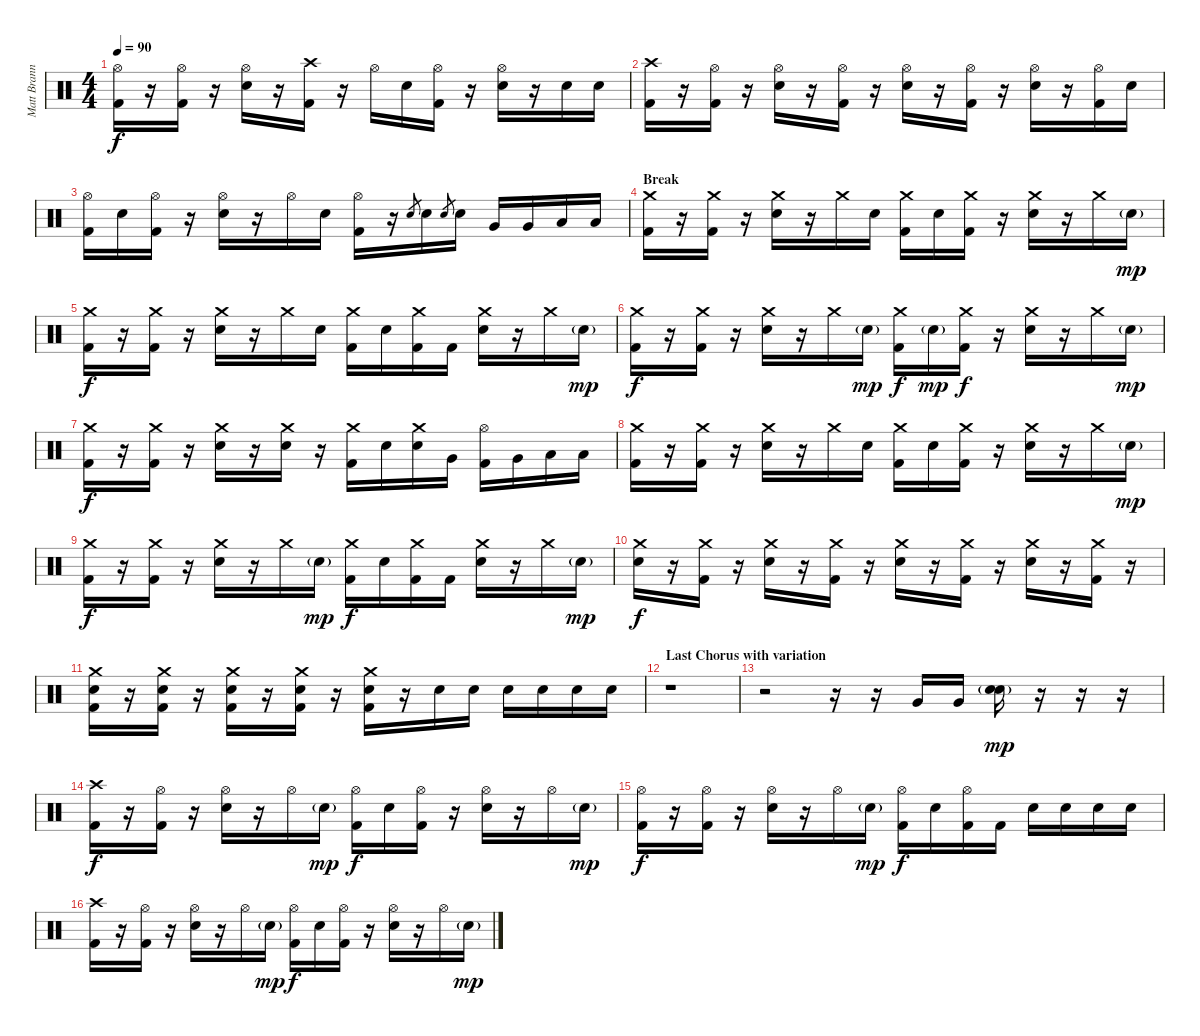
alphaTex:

\track ("Matt Brann - Drums" "Matt Brann") {instrument percussion}
\staff {score}
\articulation defaults
\ts (4 4)
\tempo 90
\clef neutral
\ks c
("Hi-Hat (open)" "Kick (hit) 2").16{dy f} r.16 ("Hi-Hat (open)" "Kick (hit) 2").16 r.16 ("Hi-Hat (open)" "Snare (hit) 2").16 r.16 ("Crash high (hit)" "Kick (hit) 2").16 r.16 "Hi-Hat (open)".16 "Snare (hit) 2".16 ("Hi-Hat (open)" "Kick (hit) 2").16 r.16 ("Hi-Hat (open)" "Snare (hit) 2").16 r.16 "Snare (hit) 2".16 "Snare (hit) 2".16 |
("Crash high (hit)" "Kick (hit) 2").16 r.16 ("Hi-Hat (open)" "Kick (hit) 2").16 r.16 ("Hi-Hat (open)" "Snare (hit) 2").16 r.16 ("Hi-Hat (open)" "Kick (hit) 2").16 r.16 ("Hi-Hat (open)" "Snare (hit) 2").16 r.16 ("Hi-Hat (open)" "Kick (hit) 2").16 r.16 ("Hi-Hat (open)" "Snare (hit) 2").16 r.16 ("Hi-Hat (open)" "Kick (hit) 2").16 "Snare (hit) 2".16 |
("Hi-Hat (open)" "Kick (hit) 2").16 "Snare (hit) 2".16 ("Hi-Hat (open)" "Kick (hit) 2").16 r.16 ("Hi-Hat (open)" "Snare (hit) 2").16 r.16 "Hi-Hat (open)".16 "Snare (hit) 2".16 ("Hi-Hat (open)" "Kick (hit) 2").16 r.16 "Snare (hit) 2".8{gr} "Snare (hit) 2".16 "Snare (hit) 2".8{gr} "Snare (hit) 2".16 "Very Low Tom (hit)".16 "Very Low Tom (hit)".16 "Low Floor Tom (hit)".16 "Low Floor Tom (hit)".16 |
\section ("" "Break")
("Crash medium (hit)" "Kick (hit) 2").16 r.16 ("Crash medium (hit)" "Kick (hit) 2").16 r.16 ("Crash medium (hit)" "Snare (hit) 2").16 r.16 "Crash medium (hit)".16 "Snare (hit) 2".16 ("Crash medium (hit)" "Kick (hit) 2").16 "Snare (hit) 2".16 ("Crash medium (hit)" "Kick (hit) 2").16 r.16 ("Crash medium (hit)" "Snare (hit) 2").16 r.16 "Crash medium (hit)".16 "Snare (hit) 2"{g}.16{dy mp} |
("Crash medium (hit)" "Kick (hit) 2").16{dy f} r.16 ("Crash medium (hit)" "Kick (hit) 2").16 r.16 ("Crash medium (hit)" "Snare (hit) 2").16 r.16 "Crash medium (hit)".16 "Snare (hit) 2".16 ("Crash medium (hit)" "Kick (hit) 2").16 "Snare (hit) 2".16 ("Crash medium (hit)" "Kick (hit) 2").16 "Kick (hit) 2".16 ("Crash medium (hit)" "Snare (hit) 2").16 r.16 "Crash medium (hit)".16 "Snare (hit) 2"{g}.16{dy mp} |
("Crash medium (hit)" "Kick (hit) 2").16{dy f} r.16 ("Crash medium (hit)" "Kick (hit) 2").16 r.16 ("Crash medium (hit)" "Snare (hit) 2").16 r.16 "Crash medium (hit)".16 "Snare (hit) 2"{g}.16{dy mp} ("Crash medium (hit)" "Kick (hit) 2").16{dy f} "Snare (hit) 2"{g}.16{dy mp} ("Crash medium (hit)" "Kick (hit) 2").16{dy f} r.16 ("Crash medium (hit)" "Snare (hit) 2").16 r.16 "Crash medium (hit)".16 "Snare (hit) 2"{g}.16{dy mp} |
("Crash medium (hit)" "Kick (hit) 2").16{dy f} r.16 ("Crash medium (hit)" "Kick (hit) 2").16 r.16 ("Crash medium (hit)" "Snare (hit) 2").16 r.16 ("Crash medium (hit)" "Snare (hit) 2").16 r.16 ("Crash medium (hit)" "Kick (hit) 2").16 "Snare (hit) 2".16 ("Crash medium (hit)" "Snare (hit) 2").16 "Very Low Tom (hit)".16 ("Hi-Hat (open)" "Kick (hit) 2").16 "Very Low Tom (hit)".16 "Low Floor Tom (hit)".16 "Low Floor Tom (hit)".16 |
("Crash medium (hit)" "Kick (hit) 2").16 r.16 ("Crash medium (hit)" "Kick (hit) 2").16 r.16 ("Crash medium (hit)" "Snare (hit) 2").16 r.16 "Crash medium (hit)".16 "Snare (hit) 2".16 ("Crash medium (hit)" "Kick (hit) 2").16 "Snare (hit) 2".16 ("Crash medium (hit)" "Kick (hit) 2").16 r.16 ("Crash medium (hit)" "Snare (hit) 2").16 r.16 "Crash medium (hit)".16 "Snare (hit) 2"{g}.16{dy mp} |
("Crash medium (hit)" "Kick (hit) 2").16{dy f} r.16 ("Crash medium (hit)" "Kick (hit) 2").16 r.16 ("Crash medium (hit)" "Snare (hit) 2").16 r.16 "Crash medium (hit)".16 "Snare (hit) 2"{g}.16{dy mp} ("Crash medium (hit)" "Kick (hit) 2").16{dy f} "Snare (hit) 2".16 ("Crash medium (hit)" "Kick (hit) 2").16 "Kick (hit) 2".16 ("Crash medium (hit)" "Snare (hit) 2").16 r.16 "Crash medium (hit)".16 "Snare (hit) 2"{g}.16{dy mp} |
("Crash medium (hit)" "Snare (hit) 2").16{dy f} r.16 ("Crash medium (hit)" "Kick (hit) 2").16 r.16 ("Crash medium (hit)" "Snare (hit) 2").16 r.16 ("Crash medium (hit)" "Kick (hit) 2").16 r.16 ("Crash medium (hit)" "Snare (hit) 2").16 r.16 ("Crash medium (hit)" "Kick (hit) 2").16 r.16 ("Crash medium (hit)" "Snare (hit) 2").16 r.16 ("Crash medium (hit)" "Kick (hit) 2").16 r.16 |
("Crash medium (hit)" "Snare (hit) 2" "Kick (hit) 2").16 r.16 ("Crash medium (hit)" "Snare (hit) 2" "Kick (hit) 2").16 r.16 ("Crash medium (hit)" "Snare (hit) 2" "Kick (hit) 2").16 r.16 ("Crash medium (hit)" "Snare (hit) 2" "Kick (hit) 2").16 r.16 ("Crash medium (hit)" "Snare (hit) 2" "Kick (hit) 2").16 r.16 "Snare (hit) 2".16 "Snare (hit) 2".16 "Snare (hit) 2".16 "Snare (hit) 2".16 "Snare (hit) 2".16 "Snare (hit) 2".16 |
\section ("" "Last Chorus with variation")
r.1 |
r.2 r.16 r.16 "Very Low Tom (hit)".16 "Very Low Tom (hit)".16 ("Snare (hit) 2"{g} "Snare (hit) 2").16{dy mp} r.16 r.16 r.16 |
("Crash high (hit)" "Kick (hit) 2").16{dy f} r.16 ("Hi-Hat (open)" "Kick (hit) 2").16 r.16 ("Hi-Hat (open)" "Snare (hit) 2").16 r.16 "Hi-Hat (open)".16 "Snare (hit) 2"{g}.16{dy mp} ("Hi-Hat (open)" "Kick (hit) 2").16{dy f} "Snare (hit) 2".16 ("Hi-Hat (open)" "Kick (hit) 2").16 r.16 ("Hi-Hat (open)" "Snare (hit) 2").16 r.16 "Hi-Hat (open)".16 "Snare (hit) 2"{g}.16{dy mp} |
("Hi-Hat (open)" "Kick (hit) 2").16{dy f} r.16 ("Hi-Hat (open)" "Kick (hit) 2").16 r.16 ("Hi-Hat (open)" "Snare (hit) 2").16 r.16 "Hi-Hat (open)".16 "Snare (hit) 2"{g}.16{dy mp} ("Hi-Hat (open)" "Kick (hit) 2").16{dy f} "Snare (hit) 2".16 ("Hi-Hat (open)" "Kick (hit) 2").16 "Kick (hit) 2".16 "Snare (hit) 2".16 "Snare (hit) 2".16 "Snare (hit) 2".16 "Snare (hit) 2".16 |
("Crash high (hit)" "Kick (hit) 2").16 r.16 ("Hi-Hat (open)" "Kick (hit) 2").16 r.16 ("Hi-Hat (open)" "Snare (hit) 2").16 r.16 "Hi-Hat (open)".16 "Snare (hit) 2"{g}.16{dy mp} ("Hi-Hat (open)" "Kick (hit) 2").16{dy f} "Snare (hit) 2".16 ("Hi-Hat (open)" "Kick (hit) 2").16 r.16 ("Hi-Hat (open)" "Snare (hit) 2").16 r.16 "Hi-Hat (open)".16 "Snare (hit) 2"{g}.16{dy mp}
